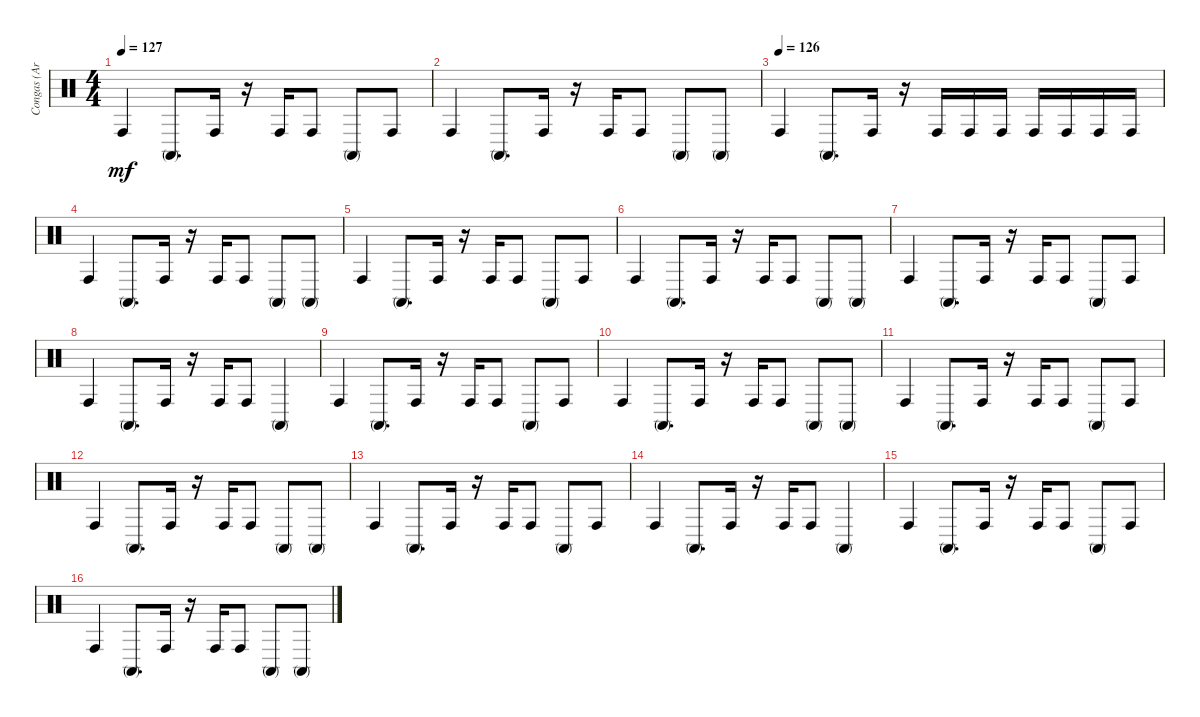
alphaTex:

\track ("Congas (Arthur Jenkins)" "Congas (Ar") {instrument percussion}
\staff {score}
\articulation defaults
\ts (4 4)
\tempo 127
\clef neutral
\ks c "Conga high (hit)".4{dy mf} "Conga high (mute)".8{d} "Conga high (hit)".16
r.16 "Conga high (hit)".16 "Conga high (hit)".8 "Conga high (mute)".8 "Conga high (hit)".8 |
"Conga high (hit)".4 "Conga high (mute)".8{d} "Conga high (hit)".16 r.16 "Conga high (hit)".16 "Conga high (hit)".8 "Conga high (mute)".8 "Conga high (mute)".8 |
\tempo (126)
"Conga high (hit)".4 "Conga high (mute)".8{d} "Conga high (hit)".16 r.16 "Conga high (hit)".16 "Conga high (hit)".16 "Conga high (hit)".16 "Conga high (hit)".16 "Conga high (hit)".16 "Conga high (hit)".16 "Conga high (hit)".16 |
"Conga high (hit)".4 "Conga high (mute)".8{d} "Conga high (hit)".16 r.16 "Conga high (hit)".16 "Conga high (hit)".8 "Conga high (mute)".8 "Conga high (mute)".8 |
"Conga high (hit)".4 "Conga high (mute)".8{d} "Conga high (hit)".16 r.16 "Conga high (hit)".16 "Conga high (hit)".8 "Conga high (mute)".8 "Conga high (hit)".8 |
"Conga high (hit)".4 "Conga high (mute)".8{d} "Conga high (hit)".16 r.16 "Conga high (hit)".16 "Conga high (hit)".8 "Conga high (mute)".8 "Conga high (mute)".8 |
"Conga high (hit)".4 "Conga high (mute)".8{d} "Conga high (hit)".16 r.16 "Conga high (hit)".16 "Conga high (hit)".8 "Conga high (mute)".8 "Conga high (hit)".8 |
"Conga high (hit)".4 "Conga high (mute)".8{d} "Conga high (hit)".16 r.16 "Conga high (hit)".16 "Conga high (hit)".8 "Conga high (mute)".4 |
"Conga high (hit)".4 "Conga high (mute)".8{d} "Conga high (hit)".16 r.16 "Conga high (hit)".16 "Conga high (hit)".8 "Conga high (mute)".8 "Conga high (hit)".8 |
"Conga high (hit)".4 "Conga high (mute)".8{d} "Conga high (hit)".16 r.16 "Conga high (hit)".16 "Conga high (hit)".8 "Conga high (mute)".8 "Conga high (mute)".8 |
"Conga high (hit)".4 "Conga high (mute)".8{d} "Conga high (hit)".16 r.16 "Conga high (hit)".16 "Conga high (hit)".8 "Conga high (mute)".8 "Conga high (hit)".8 |
"Conga high (hit)".4 "Conga high (mute)".8{d} "Conga high (hit)".16 r.16 "Conga high (hit)".16 "Conga high (hit)".8 "Conga high (mute)".8 "Conga high (mute)".8 |
"Conga high (hit)".4 "Conga high (mute)".8{d} "Conga high (hit)".16 r.16 "Conga high (hit)".16 "Conga high (hit)".8 "Conga high (mute)".8 "Conga high (hit)".8 |
"Conga high (hit)".4 "Conga high (mute)".8{d} "Conga high (hit)".16 r.16 "Conga high (hit)".16 "Conga high (hit)".8 "Conga high (mute)".4 |
"Conga high (hit)".4 "Conga high (mute)".8{d} "Conga high (hit)".16 r.16 "Conga high (hit)".16 "Conga high (hit)".8 "Conga high (mute)".8 "Conga high (hit)".8 |
"Conga high (hit)".4 "Conga high (mute)".8{d} "Conga high (hit)".16 r.16 "Conga high (hit)".16 "Conga high (hit)".8 "Conga high (mute)".8 "Conga high (mute)".8
